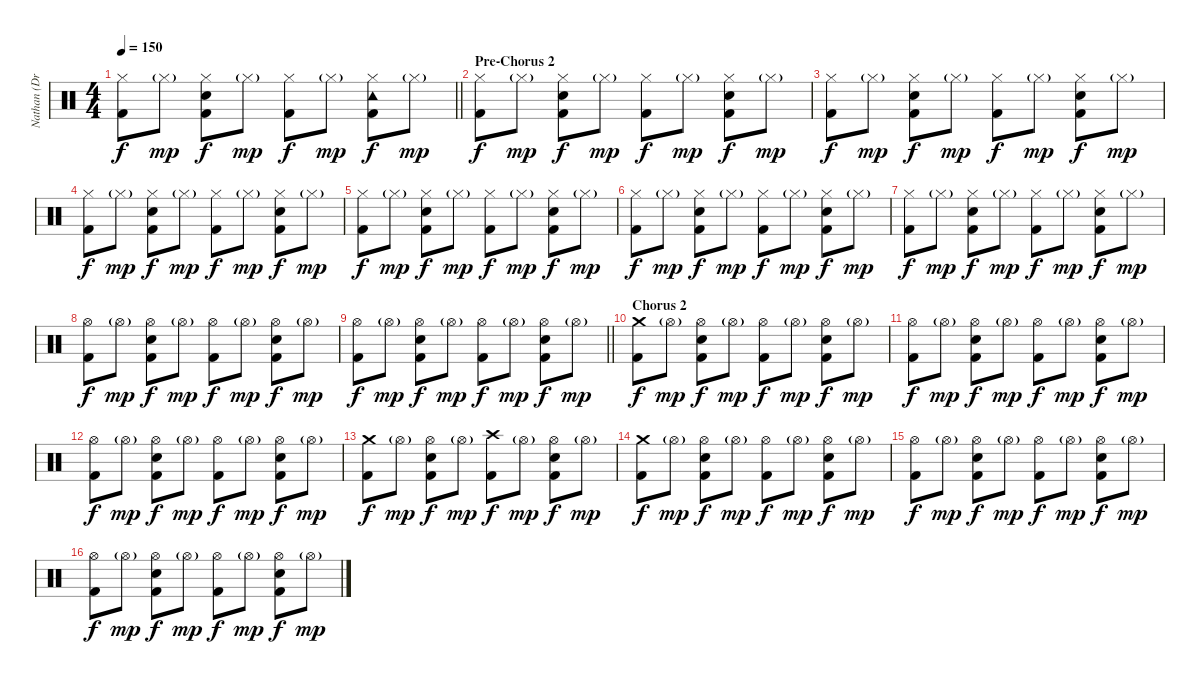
\track ("Nathan (Drums)" "Nathan (Dr") {instrument percussion}
\staff {score}
\articulation defaults
\ts (4 4)
\tempo 150
\clef neutral
\barLineRight lightlight
\ks c
("Hi-Hat (closed)" "Kick (hit) 2").8{dy f} "Hi-Hat (closed)"{g}.8{dy mp} ("Hi-Hat (closed)" "Electric Snare (hit)" "Kick (hit) 2").8{dy f} "Hi-Hat (closed)"{g}.8{dy mp} ("Hi-Hat (closed)" "Kick (hit) 2").8{dy f} "Hi-Hat (closed)"{g}.8{dy mp} ("Hi-Hat (closed)" "Tambourine (hit)" "Kick (hit) 2").8{dy f} "Hi-Hat (closed)"{g}.8{dy mp} |
\section ("" "Pre-Chorus 2")
("Hi-Hat (closed)" "Kick (hit) 2").8{dy f} "Hi-Hat (closed)"{g}.8{dy mp} ("Hi-Hat (closed)" "Electric Snare (hit)" "Kick (hit) 2").8{dy f} "Hi-Hat (closed)"{g}.8{dy mp} ("Hi-Hat (closed)" "Kick (hit) 2").8{dy f} "Hi-Hat (closed)"{g}.8{dy mp} ("Hi-Hat (closed)" "Electric Snare (hit)" "Kick (hit) 2").8{dy f} "Hi-Hat (closed)"{g}.8{dy mp} |
("Hi-Hat (closed)" "Kick (hit) 2").8{dy f} "Hi-Hat (closed)"{g}.8{dy mp} ("Hi-Hat (closed)" "Electric Snare (hit)" "Kick (hit) 2").8{dy f} "Hi-Hat (closed)"{g}.8{dy mp} ("Hi-Hat (closed)" "Kick (hit) 2").8{dy f} "Hi-Hat (closed)"{g}.8{dy mp} ("Hi-Hat (closed)" "Electric Snare (hit)" "Kick (hit) 2").8{dy f} "Hi-Hat (closed)"{g}.8{dy mp} |
("Hi-Hat (closed)" "Kick (hit) 2").8{dy f} "Hi-Hat (closed)"{g}.8{dy mp} ("Hi-Hat (closed)" "Electric Snare (hit)" "Kick (hit) 2").8{dy f} "Hi-Hat (closed)"{g}.8{dy mp} ("Hi-Hat (closed)" "Kick (hit) 2").8{dy f} "Hi-Hat (closed)"{g}.8{dy mp} ("Hi-Hat (closed)" "Electric Snare (hit)" "Kick (hit) 2").8{dy f} "Hi-Hat (closed)"{g}.8{dy mp} |
("Hi-Hat (closed)" "Kick (hit) 2").8{dy f} "Hi-Hat (closed)"{g}.8{dy mp} ("Hi-Hat (closed)" "Electric Snare (hit)" "Kick (hit) 2").8{dy f} "Hi-Hat (closed)"{g}.8{dy mp} ("Hi-Hat (closed)" "Kick (hit) 2").8{dy f} "Hi-Hat (closed)"{g}.8{dy mp} ("Hi-Hat (closed)" "Electric Snare (hit)" "Kick (hit) 2").8{dy f} "Hi-Hat (closed)"{g}.8{dy mp} |
("Hi-Hat (closed)" "Kick (hit) 2").8{dy f} "Hi-Hat (closed)"{g}.8{dy mp} ("Hi-Hat (closed)" "Electric Snare (hit)" "Kick (hit) 2").8{dy f} "Hi-Hat (closed)"{g}.8{dy mp} ("Hi-Hat (closed)" "Kick (hit) 2").8{dy f} "Hi-Hat (closed)"{g}.8{dy mp} ("Hi-Hat (closed)" "Electric Snare (hit)" "Kick (hit) 2").8{dy f} "Hi-Hat (closed)"{g}.8{dy mp} |
("Hi-Hat (closed)" "Kick (hit) 2").8{dy f} "Hi-Hat (closed)"{g}.8{dy mp} ("Hi-Hat (closed)" "Electric Snare (hit)" "Kick (hit) 2").8{dy f} "Hi-Hat (closed)"{g}.8{dy mp} ("Hi-Hat (closed)" "Kick (hit) 2").8{dy f} "Hi-Hat (closed)"{g}.8{dy mp} ("Hi-Hat (closed)" "Electric Snare (hit)" "Kick (hit) 2").8{dy f} "Hi-Hat (closed)"{g}.8{dy mp} |
("Hi-Hat (open)" "Kick (hit) 2").8{dy f} "Hi-Hat (open)"{g}.8{dy mp} ("Hi-Hat (open)" "Electric Snare (hit)" "Kick (hit) 2").8{dy f} "Hi-Hat (open)"{g}.8{dy mp} ("Hi-Hat (open)" "Kick (hit) 2").8{dy f} "Hi-Hat (open)"{g}.8{dy mp} ("Hi-Hat (open)" "Electric Snare (hit)" "Kick (hit) 2").8{dy f} "Hi-Hat (open)"{g}.8{dy mp} |
\barLineRight lightlight
("Hi-Hat (open)" "Kick (hit) 2").8{dy f} "Hi-Hat (open)"{g}.8{dy mp} ("Hi-Hat (open)" "Electric Snare (hit)" "Kick (hit) 2").8{dy f} "Hi-Hat (open)"{g}.8{dy mp} ("Hi-Hat (open)" "Kick (hit) 2").8{dy f} "Hi-Hat (open)"{g}.8{dy mp} ("Hi-Hat (open)" "Electric Snare (hit)" "Kick (hit) 2").8{dy f} "Hi-Hat (open)"{g}.8{dy mp} |
\section ("" "Chorus 2")
("Crash medium (hit)" "Kick (hit) 2").8{dy f} "Hi-Hat (open)"{g}.8{dy mp} ("Hi-Hat (open)" "Electric Snare (hit)" "Kick (hit) 2").8{dy f} "Hi-Hat (open)"{g}.8{dy mp} ("Hi-Hat (open)" "Kick (hit) 2").8{dy f} "Hi-Hat (open)"{g}.8{dy mp} ("Hi-Hat (open)" "Electric Snare (hit)" "Kick (hit) 2").8{dy f} "Hi-Hat (open)"{g}.8{dy mp} |
("Hi-Hat (open)" "Kick (hit) 2").8{dy f} "Hi-Hat (open)"{g}.8{dy mp} ("Hi-Hat (open)" "Electric Snare (hit)" "Kick (hit) 2").8{dy f} "Hi-Hat (open)"{g}.8{dy mp} ("Hi-Hat (open)" "Kick (hit) 2").8{dy f} "Hi-Hat (open)"{g}.8{dy mp} ("Hi-Hat (open)" "Electric Snare (hit)" "Kick (hit) 2").8{dy f} "Hi-Hat (open)"{g}.8{dy mp} |
("Hi-Hat (open)" "Kick (hit) 2").8{dy f} "Hi-Hat (open)"{g}.8{dy mp} ("Hi-Hat (open)" "Electric Snare (hit)" "Kick (hit) 2").8{dy f} "Hi-Hat (open)"{g}.8{dy mp} ("Hi-Hat (open)" "Kick (hit) 2").8{dy f} "Hi-Hat (open)"{g}.8{dy mp} ("Hi-Hat (open)" "Electric Snare (hit)" "Kick (hit) 2").8{dy f} "Hi-Hat (open)"{g}.8{dy mp} |
("Crash medium (hit)" "Kick (hit) 2").8{dy f} "Hi-Hat (open)"{g}.8{dy mp} ("Hi-Hat (open)" "Electric Snare (hit)" "Kick (hit) 2").8{dy f} "Hi-Hat (open)"{g}.8{dy mp} ("Crash high (hit)" "Kick (hit) 2").8{dy f} "Hi-Hat (open)"{g}.8{dy mp} ("Hi-Hat (open)" "Electric Snare (hit)" "Kick (hit) 2").8{dy f} "Hi-Hat (open)"{g}.8{dy mp} |
("Crash medium (hit)" "Kick (hit) 2").8{dy f} "Hi-Hat (open)"{g}.8{dy mp} ("Hi-Hat (open)" "Electric Snare (hit)" "Kick (hit) 2").8{dy f} "Hi-Hat (open)"{g}.8{dy mp} ("Hi-Hat (open)" "Kick (hit) 2").8{dy f} "Hi-Hat (open)"{g}.8{dy mp} ("Hi-Hat (open)" "Electric Snare (hit)" "Kick (hit) 2").8{dy f} "Hi-Hat (open)"{g}.8{dy mp} |
("Hi-Hat (open)" "Kick (hit) 2").8{dy f} "Hi-Hat (open)"{g}.8{dy mp} ("Hi-Hat (open)" "Electric Snare (hit)" "Kick (hit) 2").8{dy f} "Hi-Hat (open)"{g}.8{dy mp} ("Hi-Hat (open)" "Kick (hit) 2").8{dy f} "Hi-Hat (open)"{g}.8{dy mp} ("Hi-Hat (open)" "Electric Snare (hit)" "Kick (hit) 2").8{dy f} "Hi-Hat (open)"{g}.8{dy mp} |
("Hi-Hat (open)" "Kick (hit) 2").8{dy f} "Hi-Hat (open)"{g}.8{dy mp} ("Hi-Hat (open)" "Electric Snare (hit)" "Kick (hit) 2").8{dy f} "Hi-Hat (open)"{g}.8{dy mp} ("Hi-Hat (open)" "Kick (hit) 2").8{dy f} "Hi-Hat (open)"{g}.8{dy mp} ("Hi-Hat (open)" "Electric Snare (hit)" "Kick (hit) 2").8{dy f} "Hi-Hat (open)"{g}.8{dy mp}
